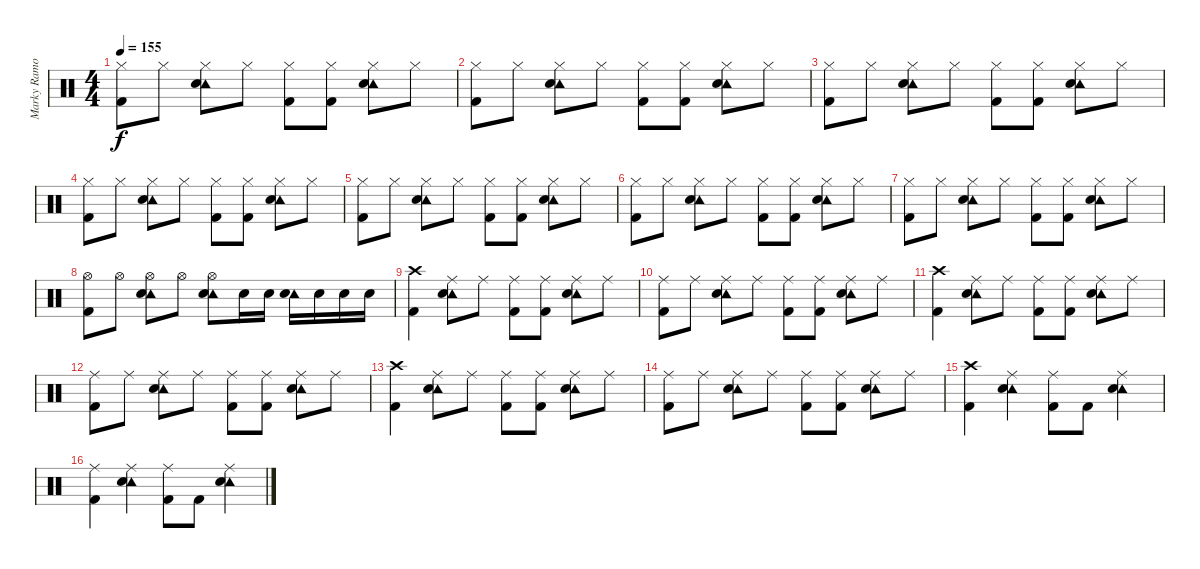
\track ("Marky Ramone" "Marky Ramo") {instrument percussion}
\staff {score}
\articulation defaults
\ts (4 4)
\tempo 155
\clef neutral
\ks c
("Kick (hit) 2" "Hi-Hat (closed)").8{dy f} "Hi-Hat (closed)".8 ("Tambourine (hit)" "Electric Snare (hit)" "Hi-Hat (closed)").8 "Hi-Hat (closed)".8 ("Kick (hit) 2" "Hi-Hat (closed)").8 ("Kick (hit) 2" "Hi-Hat (closed)").8 ("Tambourine (hit)" "Electric Snare (hit)" "Hi-Hat (closed)").8 "Hi-Hat (closed)".8 |
("Kick (hit) 2" "Hi-Hat (closed)").8 "Hi-Hat (closed)".8 ("Tambourine (hit)" "Electric Snare (hit)" "Hi-Hat (closed)").8 "Hi-Hat (closed)".8 ("Kick (hit) 2" "Hi-Hat (closed)").8 ("Kick (hit) 2" "Hi-Hat (closed)").8 ("Tambourine (hit)" "Electric Snare (hit)" "Hi-Hat (closed)").8 "Hi-Hat (closed)".8 |
("Kick (hit) 2" "Hi-Hat (closed)").8 "Hi-Hat (closed)".8 ("Tambourine (hit)" "Electric Snare (hit)" "Hi-Hat (closed)").8 "Hi-Hat (closed)".8 ("Kick (hit) 2" "Hi-Hat (closed)").8 ("Kick (hit) 2" "Hi-Hat (closed)").8 ("Tambourine (hit)" "Electric Snare (hit)" "Hi-Hat (closed)").8 "Hi-Hat (closed)".8 |
("Kick (hit) 2" "Hi-Hat (closed)").8 "Hi-Hat (closed)".8 ("Tambourine (hit)" "Electric Snare (hit)" "Hi-Hat (closed)").8 "Hi-Hat (closed)".8 ("Kick (hit) 2" "Hi-Hat (closed)").8 ("Kick (hit) 2" "Hi-Hat (closed)").8 ("Tambourine (hit)" "Electric Snare (hit)" "Hi-Hat (closed)").8 "Hi-Hat (closed)".8 |
("Kick (hit) 2" "Hi-Hat (closed)").8 "Hi-Hat (closed)".8 ("Tambourine (hit)" "Electric Snare (hit)" "Hi-Hat (closed)").8 "Hi-Hat (closed)".8 ("Kick (hit) 2" "Hi-Hat (closed)").8 ("Kick (hit) 2" "Hi-Hat (closed)").8 ("Tambourine (hit)" "Electric Snare (hit)" "Hi-Hat (closed)").8 "Hi-Hat (closed)".8 |
("Kick (hit) 2" "Hi-Hat (closed)").8 "Hi-Hat (closed)".8 ("Tambourine (hit)" "Electric Snare (hit)" "Hi-Hat (closed)").8 "Hi-Hat (closed)".8 ("Kick (hit) 2" "Hi-Hat (closed)").8 ("Kick (hit) 2" "Hi-Hat (closed)").8 ("Tambourine (hit)" "Electric Snare (hit)" "Hi-Hat (closed)").8 "Hi-Hat (closed)".8 |
("Kick (hit) 2" "Hi-Hat (closed)").8 "Hi-Hat (closed)".8 ("Tambourine (hit)" "Electric Snare (hit)" "Hi-Hat (closed)").8 "Hi-Hat (closed)".8 ("Kick (hit) 2" "Hi-Hat (closed)").8 ("Kick (hit) 2" "Hi-Hat (closed)").8 ("Tambourine (hit)" "Electric Snare (hit)" "Hi-Hat (closed)").8 "Hi-Hat (closed)".8 |
("Kick (hit) 2" "Hi-Hat (open)").8 "Hi-Hat (open)".8 ("Tambourine (hit)" "Electric Snare (hit)" "Hi-Hat (open)").8 "Hi-Hat (open)".8 ("Tambourine (hit)" "Electric Snare (hit)" "Hi-Hat (open)").8 "Electric Snare (hit)".16 "Electric Snare (hit)".16 ("Tambourine (hit)" "Electric Snare (hit)").16 "Electric Snare (hit)".16 "Electric Snare (hit)".16 "Electric Snare (hit)".16 |
("Kick (hit) 2" "Crash high (hit)").4 ("Tambourine (hit)" "Electric Snare (hit)" "Ride (middle)").8 "Ride (middle)".8 ("Kick (hit) 2" "Ride (middle)").8 ("Kick (hit) 2" "Ride (middle)").8 ("Tambourine (hit)" "Electric Snare (hit)" "Ride (middle)").8 "Ride (middle)".8 |
("Kick (hit) 2" "Ride (middle)").8 "Ride (middle)".8 ("Tambourine (hit)" "Electric Snare (hit)" "Ride (middle)").8 "Ride (middle)".8 ("Kick (hit) 2" "Ride (middle)").8 ("Kick (hit) 2" "Ride (middle)").8 ("Tambourine (hit)" "Electric Snare (hit)" "Ride (middle)").8 "Ride (middle)".8 |
("Kick (hit) 2" "Crash high (hit)").4 ("Tambourine (hit)" "Electric Snare (hit)" "Ride (middle)").8 "Ride (middle)".8 ("Kick (hit) 2" "Ride (middle)").8 ("Kick (hit) 2" "Ride (middle)").8 ("Tambourine (hit)" "Electric Snare (hit)" "Ride (middle)").8 "Ride (middle)".8 |
("Kick (hit) 2" "Ride (middle)").8 "Ride (middle)".8 ("Tambourine (hit)" "Electric Snare (hit)" "Ride (middle)").8 "Ride (middle)".8 ("Kick (hit) 2" "Ride (middle)").8 ("Kick (hit) 2" "Ride (middle)").8 ("Tambourine (hit)" "Electric Snare (hit)" "Ride (middle)").8 "Ride (middle)".8 |
("Kick (hit) 2" "Crash high (hit)").4 ("Tambourine (hit)" "Electric Snare (hit)" "Ride (middle)").8 "Ride (middle)".8 ("Kick (hit) 2" "Ride (middle)").8 ("Kick (hit) 2" "Ride (middle)").8 ("Tambourine (hit)" "Electric Snare (hit)" "Ride (middle)").8 "Ride (middle)".8 |
("Kick (hit) 2" "Ride (middle)").8 "Ride (middle)".8 ("Tambourine (hit)" "Electric Snare (hit)" "Ride (middle)").8 "Ride (middle)".8 ("Kick (hit) 2" "Ride (middle)").8 ("Kick (hit) 2" "Ride (middle)").8 ("Tambourine (hit)" "Electric Snare (hit)" "Ride (middle)").8 "Ride (middle)".8 |
("Kick (hit) 2" "Crash high (hit)").4 ("Tambourine (hit)" "Electric Snare (hit)" "Ride (middle)").4 ("Kick (hit) 2" "Ride (middle)").8 "Kick (hit) 2".8 ("Tambourine (hit)" "Electric Snare (hit)" "Ride (middle)").4 |
("Kick (hit) 2" "Ride (middle)").4 ("Tambourine (hit)" "Electric Snare (hit)" "Ride (middle)").4 ("Kick (hit) 2" "Ride (middle)").8 "Kick (hit) 2".8 ("Tambourine (hit)" "Electric Snare (hit)" "Ride (middle)").4
